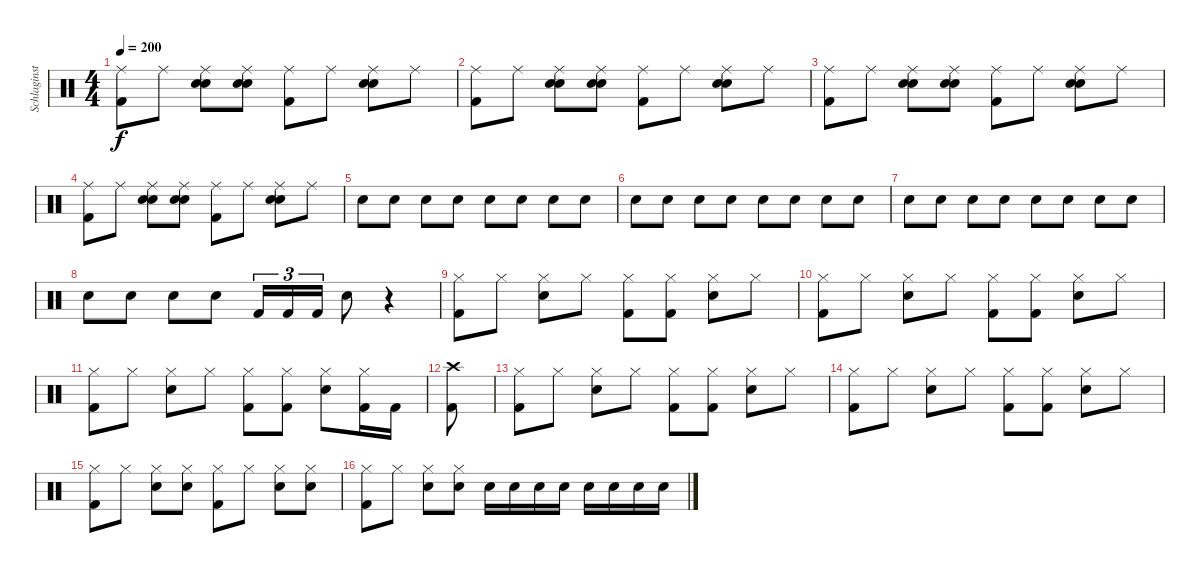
\track ("Schlaginstrumente - Auswahl" "Schlaginst") {instrument percussion}
\staff {score}
\articulation defaults
\ts (4 4)
\tempo 200
\clef neutral
\ks c
("Kick (hit) 2" "Ride (middle)").8{dy f} "Ride (middle)".8 ("Hand Clap (hit)" "Electric Snare (hit)" "Ride (middle)").8 ("Hand Clap (hit)" "Electric Snare (hit)" "Ride (middle)").8 ("Kick (hit) 2" "Ride (middle)").8 "Ride (middle)".8 ("Hand Clap (hit)" "Electric Snare (hit)" "Ride (middle)").8 "Ride (middle)".8 |
("Kick (hit) 2" "Ride (middle)").8 "Ride (middle)".8 ("Hand Clap (hit)" "Electric Snare (hit)" "Ride (middle)").8 ("Hand Clap (hit)" "Electric Snare (hit)" "Ride (middle)").8 ("Kick (hit) 2" "Ride (middle)").8 "Ride (middle)".8 ("Hand Clap (hit)" "Electric Snare (hit)" "Ride (middle)").8 "Ride (middle)".8 |
("Kick (hit) 2" "Ride (middle)").8 "Ride (middle)".8 ("Hand Clap (hit)" "Electric Snare (hit)" "Ride (middle)").8 ("Hand Clap (hit)" "Electric Snare (hit)" "Ride (middle)").8 ("Kick (hit) 2" "Ride (middle)").8 "Ride (middle)".8 ("Hand Clap (hit)" "Electric Snare (hit)" "Ride (middle)").8 "Ride (middle)".8 |
("Kick (hit) 2" "Ride (middle)").8 "Ride (middle)".8 ("Hand Clap (hit)" "Electric Snare (hit)" "Ride (middle)").8 ("Hand Clap (hit)" "Electric Snare (hit)" "Ride (middle)").8 ("Kick (hit) 2" "Ride (middle)").8 "Ride (middle)".8 ("Hand Clap (hit)" "Electric Snare (hit)" "Ride (middle)").8 "Ride (middle)".8 |
"Electric Snare (hit)".8 "Electric Snare (hit)".8 "Electric Snare (hit)".8 "Electric Snare (hit)".8 "Electric Snare (hit)".8 "Electric Snare (hit)".8 "Electric Snare (hit)".8 "Electric Snare (hit)".8 |
"Electric Snare (hit)".8 "Electric Snare (hit)".8 "Electric Snare (hit)".8 "Electric Snare (hit)".8 "Electric Snare (hit)".8 "Electric Snare (hit)".8 "Electric Snare (hit)".8 "Electric Snare (hit)".8 |
"Electric Snare (hit)".8 "Electric Snare (hit)".8 "Electric Snare (hit)".8 "Electric Snare (hit)".8 "Electric Snare (hit)".8 "Electric Snare (hit)".8 "Electric Snare (hit)".8 "Electric Snare (hit)".8 |
"Electric Snare (hit)".8 "Electric Snare (hit)".8 "Electric Snare (hit)".8 "Electric Snare (hit)".8 "Kick (hit) 2".16{tu (3 2)} "Kick (hit) 2".16{tu (3 2)} "Kick (hit) 2".16{tu (3 2)} "Electric Snare (hit)".8 r.4 |
("Hi-Hat (closed)" "Kick (hit) 2").8 "Hi-Hat (closed)".8 ("Hi-Hat (closed)" "Electric Snare (hit)").8 "Hi-Hat (closed)".8 ("Hi-Hat (closed)" "Kick (hit) 2").8 ("Hi-Hat (closed)" "Kick (hit) 2").8 ("Hi-Hat (closed)" "Electric Snare (hit)").8 "Hi-Hat (closed)".8 |
("Hi-Hat (closed)" "Kick (hit) 2").8 "Hi-Hat (closed)".8 ("Hi-Hat (closed)" "Electric Snare (hit)").8 "Hi-Hat (closed)".8 ("Hi-Hat (closed)" "Kick (hit) 2").8 ("Hi-Hat (closed)" "Kick (hit) 2").8 ("Hi-Hat (closed)" "Electric Snare (hit)").8 "Hi-Hat (closed)".8 |
("Hi-Hat (closed)" "Kick (hit) 2").8 "Hi-Hat (closed)".8 ("Hi-Hat (closed)" "Electric Snare (hit)").8 "Hi-Hat (closed)".8 ("Hi-Hat (closed)" "Kick (hit) 2").8 ("Hi-Hat (closed)" "Kick (hit) 2").8 ("Hi-Hat (closed)" "Electric Snare (hit)").8 ("Hi-Hat (closed)" "Kick (hit) 2").16 "Kick (hit) 2".16 |
("Kick (hit) 2" "Crash high (hit)").8 |
("Hi-Hat (closed)" "Kick (hit) 2").8 "Hi-Hat (closed)".8 ("Hi-Hat (closed)" "Electric Snare (hit)").8 "Hi-Hat (closed)".8 ("Hi-Hat (closed)" "Kick (hit) 2").8 ("Hi-Hat (closed)" "Kick (hit) 2").8 ("Hi-Hat (closed)" "Electric Snare (hit)").8 "Hi-Hat (closed)".8 |
("Hi-Hat (closed)" "Kick (hit) 2").8 "Hi-Hat (closed)".8 ("Hi-Hat (closed)" "Electric Snare (hit)").8 "Hi-Hat (closed)".8 ("Hi-Hat (closed)" "Kick (hit) 2").8 ("Hi-Hat (closed)" "Kick (hit) 2").8 ("Hi-Hat (closed)" "Electric Snare (hit)").8 "Hi-Hat (closed)".8 |
("Hi-Hat (closed)" "Kick (hit) 2").8 "Hi-Hat (closed)".8 ("Hi-Hat (closed)" "Electric Snare (hit)").8 ("Hi-Hat (closed)" "Electric Snare (hit)").8 ("Hi-Hat (closed)" "Kick (hit) 2").8 "Hi-Hat (closed)".8 ("Hi-Hat (closed)" "Electric Snare (hit)").8 ("Hi-Hat (closed)" "Electric Snare (hit)").8 |
("Hi-Hat (closed)" "Kick (hit) 2").8 "Hi-Hat (closed)".8 ("Hi-Hat (closed)" "Electric Snare (hit)").8 ("Hi-Hat (closed)" "Electric Snare (hit)").8 "Electric Snare (hit)".16 "Electric Snare (hit)".16 "Electric Snare (hit)".16 "Electric Snare (hit)".16 "Electric Snare (hit)".16 "Electric Snare (hit)".16 "Electric Snare (hit)".16 "Electric Snare (hit)".16
